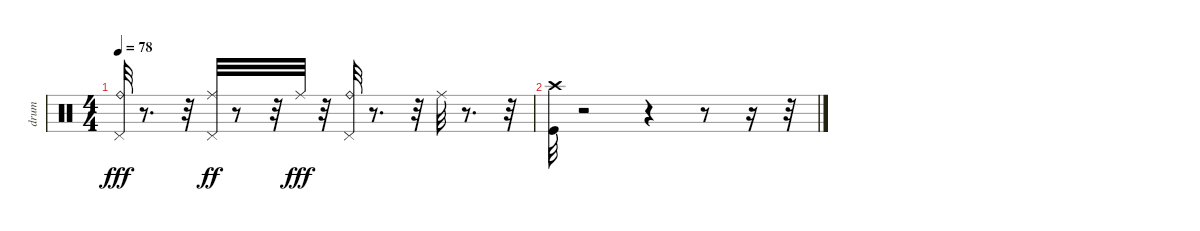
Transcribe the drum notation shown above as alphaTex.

\track ("drum" "drum") {instrument percussion}
\staff {score}
\articulation defaults
\ts (4 4)
\tempo 78
\clef neutral
\ks c
("Ride (bell)" "Pedal Hi-Hat (hit)").32{dy fff} r.8{d} r.32 ("Ride (middle)" "Pedal Hi-Hat (hit)").32{dy ff} r.8 r.32 "Ride (middle)".32{dy fff} r.32 ("Ride (bell)" "Pedal Hi-Hat (hit)").32 r.8{d} r.32 "Ride (middle)".32 r.8{d} r.32 |
("Crash high (hit)" "Kick (hit)").32 r.2 r.4 r.8 r.16 r.32
